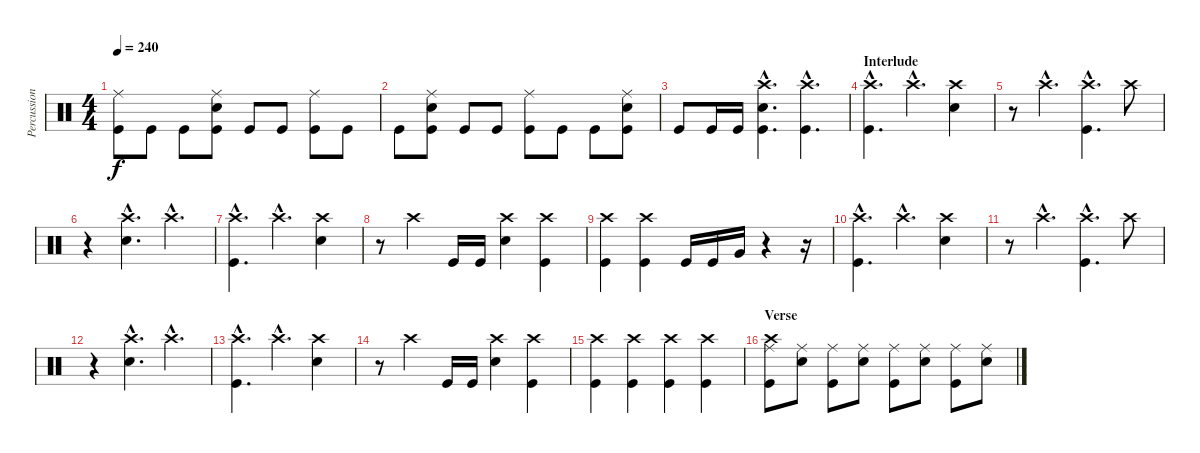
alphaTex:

\track ("Percussion" "Percussion") {instrument percussion}
\staff {score}
\articulation defaults
\ts (4 4)
\tempo 240
\clef neutral
\ks c
("Ride (middle)" "Kick (hit)").8{dy f} "Kick (hit)".8 "Kick (hit)".8 ("Electric Snare (hit)" "Ride (middle)" "Kick (hit)").8 "Kick (hit)".8 "Kick (hit)".8 ("Ride (middle)" "Kick (hit)").8 "Kick (hit)".8 |
"Kick (hit)".8 ("Electric Snare (hit)" "Ride (middle)" "Kick (hit)").8 "Kick (hit)".8 "Kick (hit)".8 ("Ride (middle)" "Kick (hit)").8 "Kick (hit)".8 "Kick (hit)".8 ("Electric Snare (hit)" "Ride (middle)" "Kick (hit)").8 |
"Kick (hit)".8 "Kick (hit)".16 "Kick (hit)".16 ("Electric Snare (hit)"{hac} "Crash high (hit)"{hac} "Kick (hit)"{hac}).4{d} ("Crash high (hit)"{hac} "Kick (hit)"{hac}).4{d} |
\section ("" "Interlude")
("Crash high (hit)"{hac} "Kick (hit)"{hac}).4{d} "Crash high (hit)"{hac}.4{d} ("Crash high (hit)" "Electric Snare (hit)").4 |
r.8 "Crash high (hit)"{hac}.4{d} ("Crash high (hit)"{hac} "Kick (hit)"{hac}).4{d} "Crash high (hit)".8 |
r.4 ("Crash high (hit)"{hac} "Electric Snare (hit)"{hac}).4{d} "Crash high (hit)"{hac}.4{d} |
("Crash high (hit)"{hac} "Kick (hit)"{hac}).4{d} "Crash high (hit)"{hac}.4{d} ("Crash high (hit)" "Electric Snare (hit)").4 |
r.8 "Crash high (hit)".4 "Kick (hit)".16 "Kick (hit)".16 ("Crash high (hit)" "Electric Snare (hit)").4 ("Crash high (hit)" "Kick (hit)").4 |
("Crash high (hit)" "Kick (hit)").4 ("Crash high (hit)" "Kick (hit)").4 "Kick (hit)".16 "Kick (hit)".16 "Very Low Tom (hit)".16 r.4 r.16 |
("Crash high (hit)"{hac} "Kick (hit)"{hac}).4{d} "Crash high (hit)"{hac}.4{d} ("Crash high (hit)" "Electric Snare (hit)").4 |
r.8 "Crash high (hit)"{hac}.4{d} ("Crash high (hit)"{hac} "Kick (hit)"{hac}).4{d} "Crash high (hit)".8 |
r.4 ("Crash high (hit)"{hac} "Electric Snare (hit)"{hac}).4{d} "Crash high (hit)"{hac}.4{d} |
("Crash high (hit)"{hac} "Kick (hit)"{hac}).4{d} "Crash high (hit)"{hac}.4{d} ("Crash high (hit)" "Electric Snare (hit)").4 |
r.8 "Crash high (hit)".4 "Kick (hit)".16 "Kick (hit)".16 ("Crash high (hit)" "Electric Snare (hit)").4 ("Crash high (hit)" "Kick (hit)").4 |
("Crash high (hit)" "Kick (hit)").4 ("Crash high (hit)" "Kick (hit)").4 ("Crash high (hit)" "Kick (hit)").4 ("Crash high (hit)" "Kick (hit)").4 |
\section ("" "Verse")
("Ride (middle)" "Crash high (hit)" "Kick (hit)").8 ("Electric Snare (hit)" "Ride (middle)").8 ("Ride (middle)" "Kick (hit)").8 ("Electric Snare (hit)" "Ride (middle)").8 ("Ride (middle)" "Kick (hit)").8 ("Electric Snare (hit)" "Ride (middle)").8 ("Ride (middle)" "Kick (hit)").8 ("Electric Snare (hit)" "Ride (middle)").8
